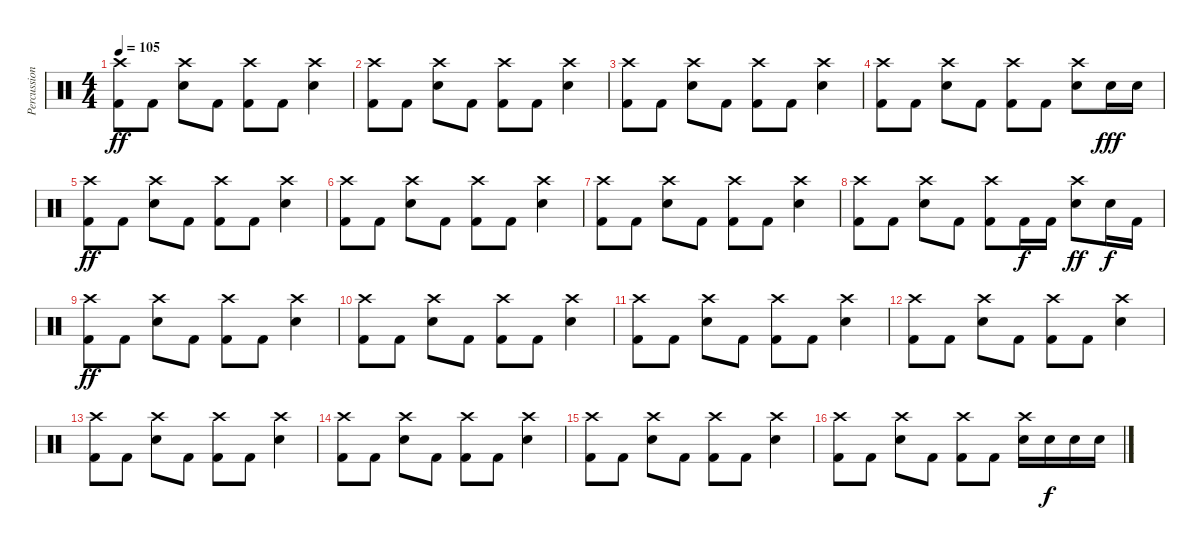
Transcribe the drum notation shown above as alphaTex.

\track ("Percussion" "Percussion") {instrument percussion}
\staff {score}
\articulation defaults
\ts (4 4)
\tempo 105
\clef neutral
\ks c
("Crash high (hit)" "Kick (hit) 2").8{dy ff} "Kick (hit) 2".8 ("Crash high (hit)" "Electric Snare (hit)").8 "Kick (hit) 2".8 ("Crash high (hit)" "Kick (hit) 2").8 "Kick (hit) 2".8 ("Crash high (hit)" "Electric Snare (hit)").4 |
("Crash high (hit)" "Kick (hit) 2").8 "Kick (hit) 2".8 ("Crash high (hit)" "Electric Snare (hit)").8 "Kick (hit) 2".8 ("Crash high (hit)" "Kick (hit) 2").8 "Kick (hit) 2".8 ("Crash high (hit)" "Electric Snare (hit)").4 |
("Crash high (hit)" "Kick (hit) 2").8 "Kick (hit) 2".8 ("Crash high (hit)" "Electric Snare (hit)").8 "Kick (hit) 2".8 ("Crash high (hit)" "Kick (hit) 2").8 "Kick (hit) 2".8 ("Crash high (hit)" "Electric Snare (hit)").4 |
("Crash high (hit)" "Kick (hit) 2").8 "Kick (hit) 2".8 ("Crash high (hit)" "Snare (hit) 2").8 "Kick (hit) 2".8 ("Crash high (hit)" "Kick (hit) 2").8 "Kick (hit) 2".8 ("Crash high (hit)" "Electric Snare (hit)").8 "Electric Snare (hit)".16{dy fff} "Electric Snare (hit)".16 |
("Crash high (hit)" "Kick (hit) 2").8{dy ff} "Kick (hit) 2".8 ("Crash high (hit)" "Electric Snare (hit)").8 "Kick (hit) 2".8 ("Crash high (hit)" "Kick (hit) 2").8 "Kick (hit) 2".8 ("Crash high (hit)" "Electric Snare (hit)").4 |
("Crash high (hit)" "Kick (hit) 2").8 "Kick (hit) 2".8 ("Crash high (hit)" "Electric Snare (hit)").8 "Kick (hit) 2".8 ("Crash high (hit)" "Kick (hit) 2").8 "Kick (hit) 2".8 ("Crash high (hit)" "Electric Snare (hit)").4 |
("Crash high (hit)" "Kick (hit) 2").8 "Kick (hit) 2".8 ("Crash high (hit)" "Electric Snare (hit)").8 "Kick (hit) 2".8 ("Crash high (hit)" "Kick (hit) 2").8 "Kick (hit) 2".8 ("Crash high (hit)" "Electric Snare (hit)").4 |
("Crash high (hit)" "Kick (hit) 2").8 "Kick (hit) 2".8 ("Crash high (hit)" "Electric Snare (hit)").8 "Kick (hit) 2".8 ("Crash high (hit)" "Kick (hit) 2").8 "Kick (hit) 2".16{dy f} "Kick (hit) 2".16 ("Crash high (hit)" "Electric Snare (hit)").8{dy ff} "Electric Snare (hit)".16{dy f} "Kick (hit) 2".16 |
("Crash high (hit)" "Kick (hit) 2").8{dy ff} "Kick (hit) 2".8 ("Crash high (hit)" "Electric Snare (hit)").8 "Kick (hit) 2".8 ("Crash high (hit)" "Kick (hit) 2").8 "Kick (hit) 2".8 ("Crash high (hit)" "Electric Snare (hit)").4 |
("Crash high (hit)" "Kick (hit) 2").8 "Kick (hit) 2".8 ("Crash high (hit)" "Electric Snare (hit)").8 "Kick (hit) 2".8 ("Crash high (hit)" "Kick (hit) 2").8 "Kick (hit) 2".8 ("Crash high (hit)" "Electric Snare (hit)").4 |
("Crash high (hit)" "Kick (hit) 2").8 "Kick (hit) 2".8 ("Crash high (hit)" "Electric Snare (hit)").8 "Kick (hit) 2".8 ("Crash high (hit)" "Kick (hit) 2").8 "Kick (hit) 2".8 ("Crash high (hit)" "Electric Snare (hit)").4 |
("Crash high (hit)" "Kick (hit) 2").8 "Kick (hit) 2".8 ("Crash high (hit)" "Electric Snare (hit)").8 "Kick (hit) 2".8 ("Crash high (hit)" "Kick (hit) 2").8 "Kick (hit) 2".8 ("Crash high (hit)" "Electric Snare (hit)").4 |
("Crash high (hit)" "Kick (hit) 2").8 "Kick (hit) 2".8 ("Crash high (hit)" "Electric Snare (hit)").8 "Kick (hit) 2".8 ("Crash high (hit)" "Kick (hit) 2").8 "Kick (hit) 2".8 ("Crash high (hit)" "Electric Snare (hit)").4 |
("Crash high (hit)" "Kick (hit) 2").8 "Kick (hit) 2".8 ("Crash high (hit)" "Electric Snare (hit)").8 "Kick (hit) 2".8 ("Crash high (hit)" "Kick (hit) 2").8 "Kick (hit) 2".8 ("Crash high (hit)" "Electric Snare (hit)").4 |
("Crash high (hit)" "Kick (hit) 2").8 "Kick (hit) 2".8 ("Crash high (hit)" "Electric Snare (hit)").8 "Kick (hit) 2".8 ("Crash high (hit)" "Kick (hit) 2").8 "Kick (hit) 2".8 ("Crash high (hit)" "Electric Snare (hit)").4 |
("Crash high (hit)" "Kick (hit) 2").8 "Kick (hit) 2".8 ("Crash high (hit)" "Electric Snare (hit)").8 "Kick (hit) 2".8 ("Crash high (hit)" "Kick (hit) 2").8 "Kick (hit) 2".8 ("Crash high (hit)" "Snare (hit) 2").16 "Snare (hit) 2".16{dy f} "Snare (hit) 2".16 "Snare (hit) 2".16
